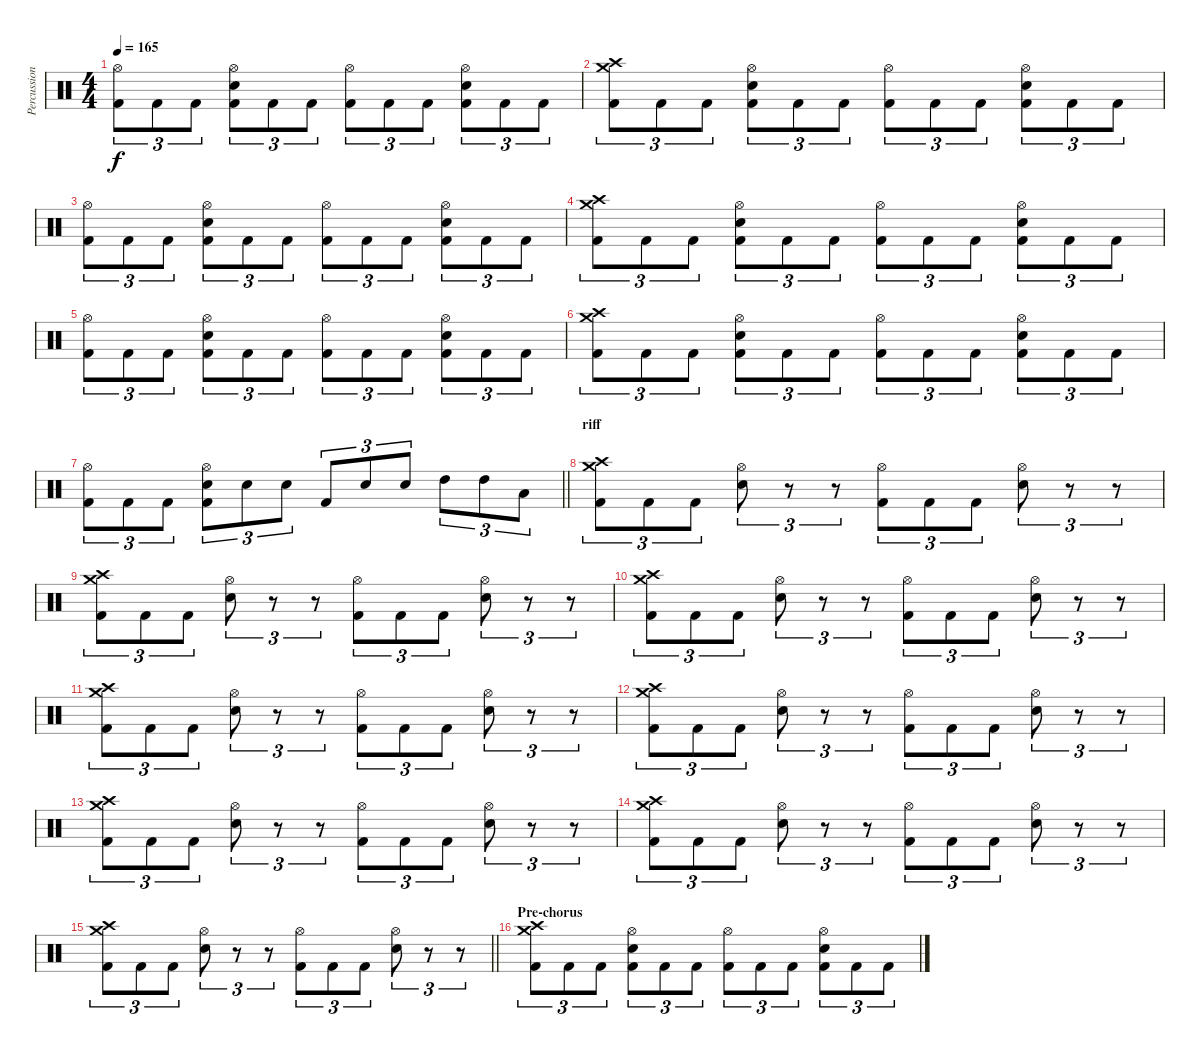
\track ("Percussioni" "Percussion") {instrument percussion}
\staff {score}
\articulation defaults
\ts (4 4)
\tempo 165
\clef neutral
\ks c
("Hi-Hat (open)" "Kick (hit) 2").8{tu (3 2) dy f} "Kick (hit) 2".8{tu (3 2)} "Kick (hit) 2".8{tu (3 2)} ("Hi-Hat (open)" "Electric Snare (hit)" "Kick (hit) 2").8{tu (3 2)} "Kick (hit) 2".8{tu (3 2)} "Kick (hit) 2".8{tu (3 2)} ("Hi-Hat (open)" "Kick (hit) 2").8{tu (3 2)} "Kick (hit) 2".8{tu (3 2)} "Kick (hit) 2".8{tu (3 2)} ("Hi-Hat (open)" "Electric Snare (hit)" "Kick (hit) 2").8{tu (3 2)} "Kick (hit) 2".8{tu (3 2)} "Kick (hit) 2".8{tu (3 2)} |
("Crash high (hit)" "Crash medium (hit)" "Kick (hit) 2").8{tu (3 2)} "Kick (hit) 2".8{tu (3 2)} "Kick (hit) 2".8{tu (3 2)} ("Hi-Hat (open)" "Electric Snare (hit)" "Kick (hit) 2").8{tu (3 2)} "Kick (hit) 2".8{tu (3 2)} "Kick (hit) 2".8{tu (3 2)} ("Hi-Hat (open)" "Kick (hit) 2").8{tu (3 2)} "Kick (hit) 2".8{tu (3 2)} "Kick (hit) 2".8{tu (3 2)} ("Hi-Hat (open)" "Electric Snare (hit)" "Kick (hit) 2").8{tu (3 2)} "Kick (hit) 2".8{tu (3 2)} "Kick (hit) 2".8{tu (3 2)} |
("Hi-Hat (open)" "Kick (hit) 2").8{tu (3 2)} "Kick (hit) 2".8{tu (3 2)} "Kick (hit) 2".8{tu (3 2)} ("Hi-Hat (open)" "Electric Snare (hit)" "Kick (hit) 2").8{tu (3 2)} "Kick (hit) 2".8{tu (3 2)} "Kick (hit) 2".8{tu (3 2)} ("Hi-Hat (open)" "Kick (hit) 2").8{tu (3 2)} "Kick (hit) 2".8{tu (3 2)} "Kick (hit) 2".8{tu (3 2)} ("Hi-Hat (open)" "Electric Snare (hit)" "Kick (hit) 2").8{tu (3 2)} "Kick (hit) 2".8{tu (3 2)} "Kick (hit) 2".8{tu (3 2)} |
("Crash high (hit)" "Crash medium (hit)" "Kick (hit) 2").8{tu (3 2)} "Kick (hit) 2".8{tu (3 2)} "Kick (hit) 2".8{tu (3 2)} ("Hi-Hat (open)" "Electric Snare (hit)" "Kick (hit) 2").8{tu (3 2)} "Kick (hit) 2".8{tu (3 2)} "Kick (hit) 2".8{tu (3 2)} ("Hi-Hat (open)" "Kick (hit) 2").8{tu (3 2)} "Kick (hit) 2".8{tu (3 2)} "Kick (hit) 2".8{tu (3 2)} ("Hi-Hat (open)" "Electric Snare (hit)" "Kick (hit) 2").8{tu (3 2)} "Kick (hit) 2".8{tu (3 2)} "Kick (hit) 2".8{tu (3 2)} |
("Hi-Hat (open)" "Kick (hit) 2").8{tu (3 2)} "Kick (hit) 2".8{tu (3 2)} "Kick (hit) 2".8{tu (3 2)} ("Hi-Hat (open)" "Electric Snare (hit)" "Kick (hit) 2").8{tu (3 2)} "Kick (hit) 2".8{tu (3 2)} "Kick (hit) 2".8{tu (3 2)} ("Hi-Hat (open)" "Kick (hit) 2").8{tu (3 2)} "Kick (hit) 2".8{tu (3 2)} "Kick (hit) 2".8{tu (3 2)} ("Hi-Hat (open)" "Electric Snare (hit)" "Kick (hit) 2").8{tu (3 2)} "Kick (hit) 2".8{tu (3 2)} "Kick (hit) 2".8{tu (3 2)} |
("Crash high (hit)" "Crash medium (hit)" "Kick (hit) 2").8{tu (3 2)} "Kick (hit) 2".8{tu (3 2)} "Kick (hit) 2".8{tu (3 2)} ("Hi-Hat (open)" "Electric Snare (hit)" "Kick (hit) 2").8{tu (3 2)} "Kick (hit) 2".8{tu (3 2)} "Kick (hit) 2".8{tu (3 2)} ("Hi-Hat (open)" "Kick (hit) 2").8{tu (3 2)} "Kick (hit) 2".8{tu (3 2)} "Kick (hit) 2".8{tu (3 2)} ("Hi-Hat (open)" "Electric Snare (hit)" "Kick (hit) 2").8{tu (3 2)} "Kick (hit) 2".8{tu (3 2)} "Kick (hit) 2".8{tu (3 2)} |
\barLineRight lightlight
("Hi-Hat (open)" "Kick (hit) 2").8{tu (3 2)} "Kick (hit) 2".8{tu (3 2)} "Kick (hit) 2".8{tu (3 2)} ("Hi-Hat (open)" "Electric Snare (hit)" "Kick (hit) 2").8{tu (3 2)} "Electric Snare (hit)".8{tu (3 2)} "Electric Snare (hit)".8{tu (3 2)} "Kick (hit) 2".8{tu (3 2)} "Electric Snare (hit)".8{tu (3 2)} "Electric Snare (hit)".8{tu (3 2)} "High Tom (hit)".8{tu (3 2)} "High Tom (hit)".8{tu (3 2)} "Low Tom (hit)".8{tu (3 2)} |
\section ("" "riff")
("Crash high (hit)" "Crash medium (hit)" "Kick (hit) 2").8{tu (3 2)} "Kick (hit) 2".8{tu (3 2)} "Kick (hit) 2".8{tu (3 2)} ("Hi-Hat (open)" "Electric Snare (hit)").8{tu (3 2)} r.8{tu (3 2)} r.8{tu (3 2)} ("Hi-Hat (open)" "Kick (hit) 2").8{tu (3 2)} "Kick (hit) 2".8{tu (3 2)} "Kick (hit) 2".8{tu (3 2)} ("Hi-Hat (open)" "Electric Snare (hit)").8{tu (3 2)} r.8{tu (3 2)} r.8{tu (3 2)} |
("Crash high (hit)" "Crash medium (hit)" "Kick (hit) 2").8{tu (3 2)} "Kick (hit) 2".8{tu (3 2)} "Kick (hit) 2".8{tu (3 2)} ("Hi-Hat (open)" "Electric Snare (hit)").8{tu (3 2)} r.8{tu (3 2)} r.8{tu (3 2)} ("Hi-Hat (open)" "Kick (hit) 2").8{tu (3 2)} "Kick (hit) 2".8{tu (3 2)} "Kick (hit) 2".8{tu (3 2)} ("Hi-Hat (open)" "Electric Snare (hit)").8{tu (3 2)} r.8{tu (3 2)} r.8{tu (3 2)} |
("Crash high (hit)" "Crash medium (hit)" "Kick (hit) 2").8{tu (3 2)} "Kick (hit) 2".8{tu (3 2)} "Kick (hit) 2".8{tu (3 2)} ("Hi-Hat (open)" "Electric Snare (hit)").8{tu (3 2)} r.8{tu (3 2)} r.8{tu (3 2)} ("Hi-Hat (open)" "Kick (hit) 2").8{tu (3 2)} "Kick (hit) 2".8{tu (3 2)} "Kick (hit) 2".8{tu (3 2)} ("Hi-Hat (open)" "Electric Snare (hit)").8{tu (3 2)} r.8{tu (3 2)} r.8{tu (3 2)} |
("Crash high (hit)" "Crash medium (hit)" "Kick (hit) 2").8{tu (3 2)} "Kick (hit) 2".8{tu (3 2)} "Kick (hit) 2".8{tu (3 2)} ("Hi-Hat (open)" "Electric Snare (hit)").8{tu (3 2)} r.8{tu (3 2)} r.8{tu (3 2)} ("Hi-Hat (open)" "Kick (hit) 2").8{tu (3 2)} "Kick (hit) 2".8{tu (3 2)} "Kick (hit) 2".8{tu (3 2)} ("Hi-Hat (open)" "Electric Snare (hit)").8{tu (3 2)} r.8{tu (3 2)} r.8{tu (3 2)} |
("Crash high (hit)" "Crash medium (hit)" "Kick (hit) 2").8{tu (3 2)} "Kick (hit) 2".8{tu (3 2)} "Kick (hit) 2".8{tu (3 2)} ("Hi-Hat (open)" "Electric Snare (hit)").8{tu (3 2)} r.8{tu (3 2)} r.8{tu (3 2)} ("Hi-Hat (open)" "Kick (hit) 2").8{tu (3 2)} "Kick (hit) 2".8{tu (3 2)} "Kick (hit) 2".8{tu (3 2)} ("Hi-Hat (open)" "Electric Snare (hit)").8{tu (3 2)} r.8{tu (3 2)} r.8{tu (3 2)} |
("Crash high (hit)" "Crash medium (hit)" "Kick (hit) 2").8{tu (3 2)} "Kick (hit) 2".8{tu (3 2)} "Kick (hit) 2".8{tu (3 2)} ("Hi-Hat (open)" "Electric Snare (hit)").8{tu (3 2)} r.8{tu (3 2)} r.8{tu (3 2)} ("Hi-Hat (open)" "Kick (hit) 2").8{tu (3 2)} "Kick (hit) 2".8{tu (3 2)} "Kick (hit) 2".8{tu (3 2)} ("Hi-Hat (open)" "Electric Snare (hit)").8{tu (3 2)} r.8{tu (3 2)} r.8{tu (3 2)} |
("Crash high (hit)" "Crash medium (hit)" "Kick (hit) 2").8{tu (3 2)} "Kick (hit) 2".8{tu (3 2)} "Kick (hit) 2".8{tu (3 2)} ("Hi-Hat (open)" "Electric Snare (hit)").8{tu (3 2)} r.8{tu (3 2)} r.8{tu (3 2)} ("Hi-Hat (open)" "Kick (hit) 2").8{tu (3 2)} "Kick (hit) 2".8{tu (3 2)} "Kick (hit) 2".8{tu (3 2)} ("Hi-Hat (open)" "Electric Snare (hit)").8{tu (3 2)} r.8{tu (3 2)} r.8{tu (3 2)} |
\barLineRight lightlight
("Crash high (hit)" "Crash medium (hit)" "Kick (hit) 2").8{tu (3 2)} "Kick (hit) 2".8{tu (3 2)} "Kick (hit) 2".8{tu (3 2)} ("Hi-Hat (open)" "Electric Snare (hit)").8{tu (3 2)} r.8{tu (3 2)} r.8{tu (3 2)} ("Hi-Hat (open)" "Kick (hit) 2").8{tu (3 2)} "Kick (hit) 2".8{tu (3 2)} "Kick (hit) 2".8{tu (3 2)} ("Hi-Hat (open)" "Electric Snare (hit)").8{tu (3 2)} r.8{tu (3 2)} r.8{tu (3 2)} |
\section ("" "Pre-chorus")
("Crash high (hit)" "Crash medium (hit)" "Kick (hit) 2").8{tu (3 2)} "Kick (hit) 2".8{tu (3 2)} "Kick (hit) 2".8{tu (3 2)} ("Hi-Hat (open)" "Electric Snare (hit)" "Kick (hit) 2").8{tu (3 2)} "Kick (hit) 2".8{tu (3 2)} "Kick (hit) 2".8{tu (3 2)} ("Hi-Hat (open)" "Kick (hit) 2").8{tu (3 2)} "Kick (hit) 2".8{tu (3 2)} "Kick (hit) 2".8{tu (3 2)} ("Hi-Hat (open)" "Electric Snare (hit)" "Kick (hit) 2").8{tu (3 2)} "Kick (hit) 2".8{tu (3 2)} "Kick (hit) 2".8{tu (3 2)}
